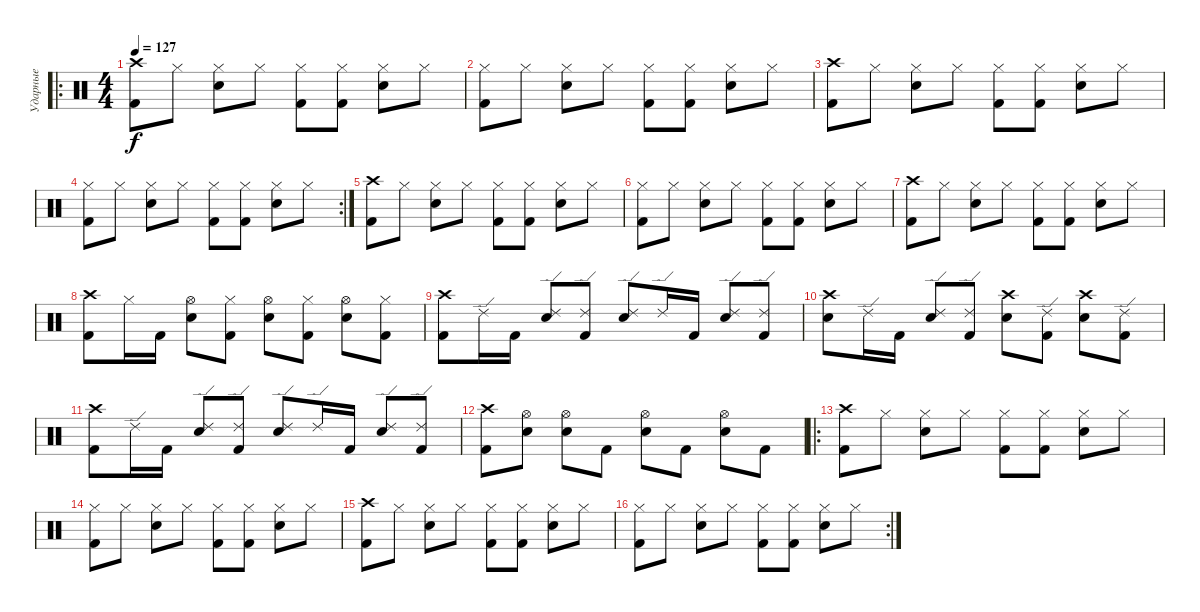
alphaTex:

\track ("Ударные" "Ударные") {instrument percussion}
\staff {score}
\articulation defaults
\ro
\ts (4 4)
\tempo 127
\clef neutral
\ks c
("Kick (hit) 2" "Crash high (hit)").8{dy f} "Hi-Hat (closed)".8 ("Electric Snare (hit)" "Hi-Hat (closed)").8 "Hi-Hat (closed)".8 ("Kick (hit) 2" "Hi-Hat (closed)").8 ("Kick (hit) 2" "Hi-Hat (closed)").8 ("Electric Snare (hit)" "Hi-Hat (closed)").8 "Hi-Hat (closed)".8 |
("Kick (hit) 2" "Hi-Hat (closed)").8 "Hi-Hat (closed)".8 ("Electric Snare (hit)" "Hi-Hat (closed)").8 "Hi-Hat (closed)".8 ("Kick (hit) 2" "Hi-Hat (closed)").8 ("Kick (hit) 2" "Hi-Hat (closed)").8 ("Electric Snare (hit)" "Hi-Hat (closed)").8 "Hi-Hat (closed)".8 |
("Kick (hit) 2" "Crash high (hit)").8 "Hi-Hat (closed)".8 ("Electric Snare (hit)" "Hi-Hat (closed)").8 "Hi-Hat (closed)".8 ("Kick (hit) 2" "Hi-Hat (closed)").8 ("Kick (hit) 2" "Hi-Hat (closed)").8 ("Electric Snare (hit)" "Hi-Hat (closed)").8 "Hi-Hat (closed)".8 |
\rc 2
("Kick (hit) 2" "Hi-Hat (closed)").8 "Hi-Hat (closed)".8 ("Electric Snare (hit)" "Hi-Hat (closed)").8 "Hi-Hat (closed)".8 ("Kick (hit) 2" "Hi-Hat (closed)").8 ("Kick (hit) 2" "Hi-Hat (closed)").8 ("Electric Snare (hit)" "Hi-Hat (closed)").8 "Hi-Hat (closed)".8 |
("Kick (hit) 2" "Crash high (hit)").8 "Hi-Hat (closed)".8 ("Electric Snare (hit)" "Hi-Hat (closed)").8 "Hi-Hat (closed)".8 ("Kick (hit) 2" "Hi-Hat (closed)").8 ("Kick (hit) 2" "Hi-Hat (closed)").8 ("Electric Snare (hit)" "Hi-Hat (closed)").8 "Hi-Hat (closed)".8 |
("Kick (hit) 2" "Hi-Hat (closed)").8 "Hi-Hat (closed)".8 ("Electric Snare (hit)" "Hi-Hat (closed)").8 "Hi-Hat (closed)".8 ("Kick (hit) 2" "Hi-Hat (closed)").8 ("Kick (hit) 2" "Hi-Hat (closed)").8 ("Electric Snare (hit)" "Hi-Hat (closed)").8 "Hi-Hat (closed)".8 |
("Kick (hit) 2" "Crash high (hit)").8 "Hi-Hat (closed)".8 ("Electric Snare (hit)" "Hi-Hat (closed)").8 "Hi-Hat (closed)".8 ("Kick (hit) 2" "Hi-Hat (closed)").8 ("Kick (hit) 2" "Hi-Hat (closed)").8 ("Electric Snare (hit)" "Hi-Hat (closed)").8 "Hi-Hat (closed)".8 |
("Kick (hit) 2" "Crash high (hit)").8 "Hi-Hat (closed)".16 "Kick (hit) 2".16 ("Electric Snare (hit)" "Hi-Hat (open)").8 ("Kick (hit) 2" "Hi-Hat (closed)").8 ("Electric Snare (hit)" "Hi-Hat (open)").8 ("Kick (hit) 2" "Hi-Hat (closed)").8 ("Electric Snare (hit)" "Hi-Hat (open)").8 ("Kick (hit) 2" "Hi-Hat (closed)").8 |
("Kick (hit) 2" "Crash high (hit)").8 "Ride (edge) 2".16 "Kick (hit) 2".16 ("Electric Snare (hit)" "Ride (edge) 2").8 ("Kick (hit) 2" "Ride (edge) 2").8 ("Electric Snare (hit)" "Ride (edge) 2").8 "Ride (edge) 2".16 "Kick (hit) 2".16 ("Electric Snare (hit)" "Ride (edge) 2").8 ("Kick (hit) 2" "Ride (edge) 2").8 |
("Electric Snare (hit)" "Crash high (hit)").8 "Ride (edge) 2".16 "Kick (hit) 2".16 ("Electric Snare (hit)" "Ride (edge) 2").8 ("Kick (hit) 2" "Ride (edge) 2").8 ("Electric Snare (hit)" "Crash high (hit)").8 ("Kick (hit) 2" "Ride (edge) 2").8 ("Electric Snare (hit)" "Crash high (hit)").8 ("Kick (hit) 2" "Ride (edge) 2").8 |
("Kick (hit) 2" "Crash high (hit)").8 "Ride (edge) 2".16 "Kick (hit) 2".16 ("Electric Snare (hit)" "Ride (edge) 2").8 ("Kick (hit) 2" "Ride (edge) 2").8 ("Electric Snare (hit)" "Ride (edge) 2").8 "Ride (edge) 2".16 "Kick (hit) 2".16 ("Electric Snare (hit)" "Ride (edge) 2").8 ("Kick (hit) 2" "Ride (edge) 2").8 |
("Kick (hit) 2" "Crash high (hit)").8 ("Electric Snare (hit)" "Hi-Hat (open)").8 ("Electric Snare (hit)" "Hi-Hat (open)").8 "Kick (hit) 2".8 ("Electric Snare (hit)" "Hi-Hat (open)").8 "Kick (hit) 2".8 ("Electric Snare (hit)" "Hi-Hat (open)").8 "Kick (hit) 2".8 |
\ro
("Kick (hit) 2" "Crash high (hit)").8 "Hi-Hat (closed)".8 ("Electric Snare (hit)" "Hi-Hat (closed)").8 "Hi-Hat (closed)".8 ("Kick (hit) 2" "Hi-Hat (closed)").8 ("Kick (hit) 2" "Hi-Hat (closed)").8 ("Electric Snare (hit)" "Hi-Hat (closed)").8 "Hi-Hat (closed)".8 |
("Kick (hit) 2" "Hi-Hat (closed)").8 "Hi-Hat (closed)".8 ("Electric Snare (hit)" "Hi-Hat (closed)").8 "Hi-Hat (closed)".8 ("Kick (hit) 2" "Hi-Hat (closed)").8 ("Kick (hit) 2" "Hi-Hat (closed)").8 ("Electric Snare (hit)" "Hi-Hat (closed)").8 "Hi-Hat (closed)".8 |
("Kick (hit) 2" "Crash high (hit)").8 "Hi-Hat (closed)".8 ("Electric Snare (hit)" "Hi-Hat (closed)").8 "Hi-Hat (closed)".8 ("Kick (hit) 2" "Hi-Hat (closed)").8 ("Kick (hit) 2" "Hi-Hat (closed)").8 ("Electric Snare (hit)" "Hi-Hat (closed)").8 "Hi-Hat (closed)".8 |
\rc 2
("Kick (hit) 2" "Hi-Hat (closed)").8 "Hi-Hat (closed)".8 ("Electric Snare (hit)" "Hi-Hat (closed)").8 "Hi-Hat (closed)".8 ("Kick (hit) 2" "Hi-Hat (closed)").8 ("Kick (hit) 2" "Hi-Hat (closed)").8 ("Electric Snare (hit)" "Hi-Hat (closed)").8 "Hi-Hat (closed)".8
